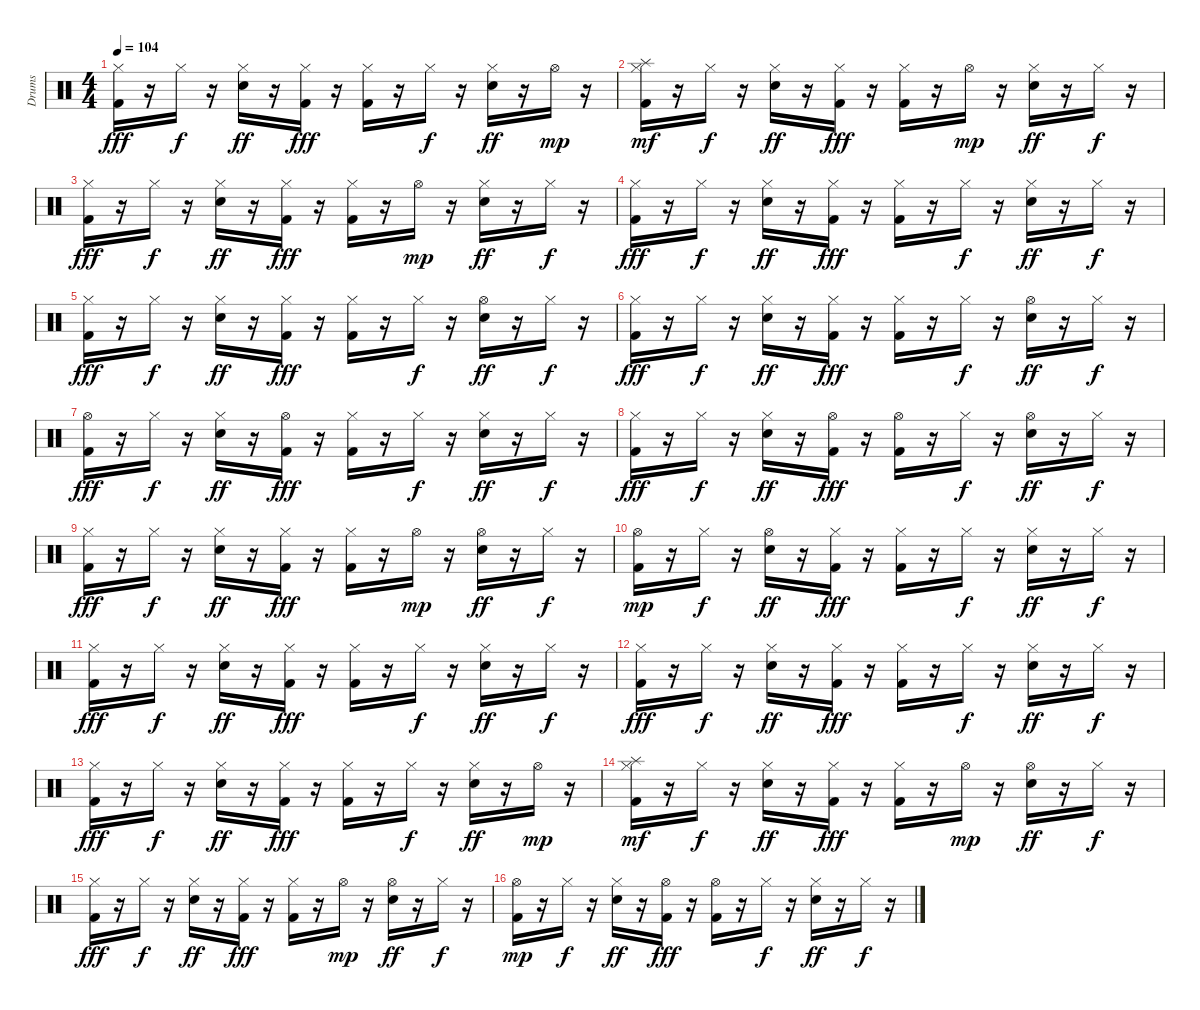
\track ("Drums" "Drums") {instrument percussion}
\staff {score}
\articulation defaults
\ts (4 4)
\tempo 104
\clef neutral
\ks c
("Hi-Hat (closed)" "Kick (hit) 2").16{dy fff} r.16 "Hi-Hat (closed)".16{dy f} r.16 ("Hi-Hat (closed)" "Snare (hit) 2").16{dy ff} r.16 ("Hi-Hat (closed)" "Kick (hit) 2").16{dy fff} r.16 ("Hi-Hat (closed)" "Kick (hit) 2").16 r.16 "Hi-Hat (closed)".16{dy f} r.16 ("Hi-Hat (closed)" "Snare (hit) 2").16{dy ff} r.16 "Hi-Hat (open)".16{dy mp} r.16 |
("Kick (hit) 2" "Splash (hit)" "Hi-Hat (closed)").16{dy mf} r.16 "Hi-Hat (closed)".16{dy f} r.16 ("Hi-Hat (closed)" "Snare (hit) 2").16{dy ff} r.16 ("Hi-Hat (closed)" "Kick (hit) 2").16{dy fff} r.16 ("Hi-Hat (closed)" "Kick (hit) 2").16 r.16 "Hi-Hat (open)".16{dy mp} r.16 ("Hi-Hat (closed)" "Snare (hit) 2").16{dy ff} r.16 "Hi-Hat (closed)".16{dy f} r.16 |
("Hi-Hat (closed)" "Kick (hit) 2").16{dy fff} r.16 "Hi-Hat (closed)".16{dy f} r.16 ("Hi-Hat (closed)" "Snare (hit) 2").16{dy ff} r.16 ("Hi-Hat (closed)" "Kick (hit) 2").16{dy fff} r.16 ("Hi-Hat (closed)" "Kick (hit) 2").16 r.16 "Hi-Hat (open)".16{dy mp} r.16 ("Hi-Hat (closed)" "Snare (hit) 2").16{dy ff} r.16 "Hi-Hat (closed)".16{dy f} r.16 |
("Kick (hit) 2" "Hi-Hat (closed)").16{dy fff} r.16 "Hi-Hat (closed)".16{dy f} r.16 ("Hi-Hat (closed)" "Snare (hit) 2").16{dy ff} r.16 ("Hi-Hat (closed)" "Kick (hit) 2").16{dy fff} r.16 ("Hi-Hat (closed)" "Kick (hit) 2").16 r.16 "Hi-Hat (closed)".16{dy f} r.16 ("Hi-Hat (closed)" "Snare (hit) 2").16{dy ff} r.16 "Hi-Hat (closed)".16{dy f} r.16 |
("Hi-Hat (closed)" "Kick (hit) 2").16{dy fff} r.16 "Hi-Hat (closed)".16{dy f} r.16 ("Hi-Hat (closed)" "Snare (hit) 2").16{dy ff} r.16 ("Hi-Hat (closed)" "Kick (hit) 2").16{dy fff} r.16 ("Hi-Hat (closed)" "Kick (hit) 2").16 r.16 "Hi-Hat (closed)".16{dy f} r.16 ("Hi-Hat (open)" "Snare (hit) 2").16{dy ff} r.16 "Hi-Hat (closed)".16{dy f} r.16 |
("Kick (hit) 2" "Hi-Hat (closed)").16{dy fff} r.16 "Hi-Hat (closed)".16{dy f} r.16 ("Hi-Hat (closed)" "Snare (hit) 2").16{dy ff} r.16 ("Hi-Hat (closed)" "Kick (hit) 2").16{dy fff} r.16 ("Hi-Hat (closed)" "Kick (hit) 2").16 r.16 "Hi-Hat (closed)".16{dy f} r.16 ("Hi-Hat (open)" "Snare (hit) 2").16{dy ff} r.16 "Hi-Hat (closed)".16{dy f} r.16 |
("Hi-Hat (open)" "Kick (hit) 2").16{dy fff} r.16 "Hi-Hat (closed)".16{dy f} r.16 ("Hi-Hat (closed)" "Snare (hit) 2").16{dy ff} r.16 ("Hi-Hat (open)" "Kick (hit) 2").16{dy fff} r.16 ("Hi-Hat (closed)" "Kick (hit) 2").16 r.16 "Hi-Hat (closed)".16{dy f} r.16 ("Hi-Hat (closed)" "Snare (hit) 2").16{dy ff} r.16 "Hi-Hat (closed)".16{dy f} r.16 |
("Kick (hit) 2" "Hi-Hat (closed)").16{dy fff} r.16 "Hi-Hat (closed)".16{dy f} r.16 ("Hi-Hat (closed)" "Snare (hit) 2").16{dy ff} r.16 ("Hi-Hat (open)" "Kick (hit) 2").16{dy fff} r.16 ("Hi-Hat (open)" "Kick (hit) 2").16 r.16 "Hi-Hat (closed)".16{dy f} r.16 ("Hi-Hat (open)" "Snare (hit) 2").16{dy ff} r.16 "Hi-Hat (closed)".16{dy f} r.16 |
("Hi-Hat (closed)" "Kick (hit) 2").16{dy fff} r.16 "Hi-Hat (closed)".16{dy f} r.16 ("Hi-Hat (closed)" "Snare (hit) 2").16{dy ff} r.16 ("Hi-Hat (closed)" "Kick (hit) 2").16{dy fff} r.16 ("Hi-Hat (closed)" "Kick (hit) 2").16 r.16 "Hi-Hat (open)".16{dy mp} r.16 ("Hi-Hat (open)" "Snare (hit) 2").16{dy ff} r.16 "Hi-Hat (closed)".16{dy f} r.16 |
("Kick (hit) 2" "Hi-Hat (open)").16{dy mp} r.16 "Hi-Hat (closed)".16{dy f} r.16 ("Hi-Hat (open)" "Snare (hit) 2").16{dy ff} r.16 ("Hi-Hat (closed)" "Kick (hit) 2").16{dy fff} r.16 ("Hi-Hat (closed)" "Kick (hit) 2").16 r.16 "Hi-Hat (closed)".16{dy f} r.16 ("Hi-Hat (closed)" "Snare (hit) 2").16{dy ff} r.16 "Hi-Hat (closed)".16{dy f} r.16 |
("Hi-Hat (closed)" "Kick (hit) 2").16{dy fff} r.16 "Hi-Hat (closed)".16{dy f} r.16 ("Hi-Hat (closed)" "Snare (hit) 2").16{dy ff} r.16 ("Hi-Hat (closed)" "Kick (hit) 2").16{dy fff} r.16 ("Hi-Hat (closed)" "Kick (hit) 2").16 r.16 "Hi-Hat (closed)".16{dy f} r.16 ("Hi-Hat (closed)" "Snare (hit) 2").16{dy ff} r.16 "Hi-Hat (closed)".16{dy f} r.16 |
("Kick (hit) 2" "Hi-Hat (closed)").16{dy fff} r.16 "Hi-Hat (closed)".16{dy f} r.16 ("Hi-Hat (closed)" "Snare (hit) 2").16{dy ff} r.16 ("Hi-Hat (closed)" "Kick (hit) 2").16{dy fff} r.16 ("Hi-Hat (closed)" "Kick (hit) 2").16 r.16 "Hi-Hat (closed)".16{dy f} r.16 ("Hi-Hat (closed)" "Snare (hit) 2").16{dy ff} r.16 "Hi-Hat (closed)".16{dy f} r.16 |
("Hi-Hat (closed)" "Kick (hit) 2").16{dy fff} r.16 "Hi-Hat (closed)".16{dy f} r.16 ("Hi-Hat (closed)" "Snare (hit) 2").16{dy ff} r.16 ("Hi-Hat (closed)" "Kick (hit) 2").16{dy fff} r.16 ("Hi-Hat (closed)" "Kick (hit) 2").16 r.16 "Hi-Hat (closed)".16{dy f} r.16 ("Hi-Hat (closed)" "Snare (hit) 2").16{dy ff} r.16 "Hi-Hat (open)".16{dy mp} r.16 |
("Kick (hit) 2" "Hi-Hat (closed)" "Splash (hit)").16{dy mf} r.16 "Hi-Hat (closed)".16{dy f} r.16 ("Hi-Hat (closed)" "Snare (hit) 2").16{dy ff} r.16 ("Hi-Hat (closed)" "Kick (hit) 2").16{dy fff} r.16 ("Hi-Hat (closed)" "Kick (hit) 2").16 r.16 "Hi-Hat (open)".16{dy mp} r.16 ("Hi-Hat (open)" "Snare (hit) 2").16{dy ff} r.16 "Hi-Hat (closed)".16{dy f} r.16 |
("Hi-Hat (closed)" "Kick (hit) 2").16{dy fff} r.16 "Hi-Hat (closed)".16{dy f} r.16 ("Hi-Hat (closed)" "Snare (hit) 2").16{dy ff} r.16 ("Hi-Hat (closed)" "Kick (hit) 2").16{dy fff} r.16 ("Hi-Hat (closed)" "Kick (hit) 2").16 r.16 "Hi-Hat (open)".16{dy mp} r.16 ("Hi-Hat (open)" "Snare (hit) 2").16{dy ff} r.16 "Hi-Hat (closed)".16{dy f} r.16 |
("Kick (hit) 2" "Hi-Hat (open)").16{dy mp} r.16 "Hi-Hat (closed)".16{dy f} r.16 ("Hi-Hat (closed)" "Snare (hit) 2").16{dy ff} r.16 ("Hi-Hat (open)" "Kick (hit) 2").16{dy fff} r.16 ("Hi-Hat (open)" "Kick (hit) 2").16 r.16 "Hi-Hat (closed)".16{dy f} r.16 ("Hi-Hat (closed)" "Snare (hit) 2").16{dy ff} r.16 "Hi-Hat (closed)".16{dy f} r.16
